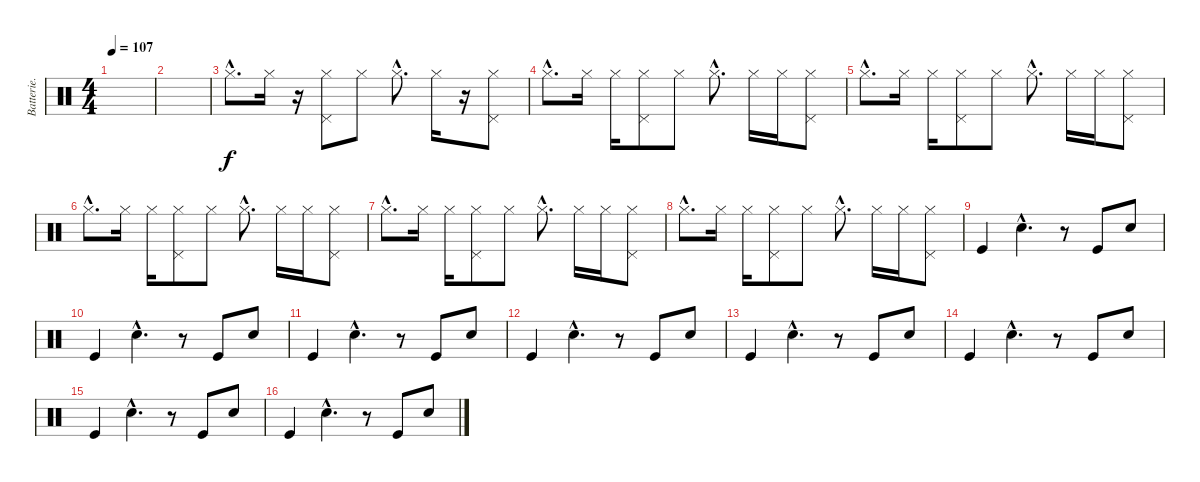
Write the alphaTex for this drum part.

\track ("Batterie." "Batterie.") {instrument percussion}
\staff {score}
\articulation defaults
\ts (4 4)
\tempo 107
\clef neutral
\ks c
|
|
"Hi-Hat (closed)"{hac}.8{d} "Hi-Hat (closed)".16 r.16 ("Hi-Hat (closed)" "Pedal Hi-Hat (hit)").8 "Hi-Hat (closed)".8 "Hi-Hat (closed)"{hac}.8{d} "Hi-Hat (closed)".16 r.16 ("Hi-Hat (closed)" "Pedal Hi-Hat (hit)").8 |
"Hi-Hat (closed)"{hac}.8{d} "Hi-Hat (closed)".16 "Hi-Hat (closed)".16 ("Hi-Hat (closed)" "Pedal Hi-Hat (hit)").8 "Hi-Hat (closed)".8 "Hi-Hat (closed)"{hac}.8{d} "Hi-Hat (closed)".16 "Hi-Hat (closed)".16 ("Hi-Hat (closed)" "Pedal Hi-Hat (hit)").8 |
"Hi-Hat (closed)"{hac}.8{d} "Hi-Hat (closed)".16 "Hi-Hat (closed)".16 ("Hi-Hat (closed)" "Pedal Hi-Hat (hit)").8 "Hi-Hat (closed)".8 "Hi-Hat (closed)"{hac}.8{d} "Hi-Hat (closed)".16 "Hi-Hat (closed)".16 ("Hi-Hat (closed)" "Pedal Hi-Hat (hit)").8 |
"Hi-Hat (closed)"{hac}.8{d} "Hi-Hat (closed)".16 "Hi-Hat (closed)".16 ("Hi-Hat (closed)" "Pedal Hi-Hat (hit)").8 "Hi-Hat (closed)".8 "Hi-Hat (closed)"{hac}.8{d} "Hi-Hat (closed)".16 "Hi-Hat (closed)".16 ("Hi-Hat (closed)" "Pedal Hi-Hat (hit)").8 |
"Hi-Hat (closed)"{hac}.8{d} "Hi-Hat (closed)".16 "Hi-Hat (closed)".16 ("Hi-Hat (closed)" "Pedal Hi-Hat (hit)").8 "Hi-Hat (closed)".8 "Hi-Hat (closed)"{hac}.8{d} "Hi-Hat (closed)".16 "Hi-Hat (closed)".16 ("Hi-Hat (closed)" "Pedal Hi-Hat (hit)").8 |
"Hi-Hat (closed)"{hac}.8{d} "Hi-Hat (closed)".16 "Hi-Hat (closed)".16 ("Hi-Hat (closed)" "Pedal Hi-Hat (hit)").8 "Hi-Hat (closed)".8 "Hi-Hat (closed)"{hac}.8{d} "Hi-Hat (closed)".16 "Hi-Hat (closed)".16 ("Hi-Hat (closed)" "Pedal Hi-Hat (hit)").8 |
"Kick (hit)".4 "Electric Snare (hit)"{hac}.4{d} r.8 "Kick (hit)".8 "Electric Snare (hit)".8 |
"Kick (hit)".4 "Electric Snare (hit)"{hac}.4{d} r.8 "Kick (hit)".8 "Electric Snare (hit)".8 |
"Kick (hit)".4 "Electric Snare (hit)"{hac}.4{d} r.8 "Kick (hit)".8 "Electric Snare (hit)".8 |
"Kick (hit)".4 "Electric Snare (hit)"{hac}.4{d} r.8 "Kick (hit)".8 "Electric Snare (hit)".8 |
"Kick (hit)".4 "Electric Snare (hit)"{hac}.4{d} r.8 "Kick (hit)".8 "Electric Snare (hit)".8 |
"Kick (hit)".4 "Electric Snare (hit)"{hac}.4{d} r.8 "Kick (hit)".8 "Electric Snare (hit)".8 |
"Kick (hit)".4 "Electric Snare (hit)"{hac}.4{d} r.8 "Kick (hit)".8 "Electric Snare (hit)".8 |
"Kick (hit)".4 "Electric Snare (hit)"{hac}.4{d} r.8 "Kick (hit)".8 "Electric Snare (hit)".8
